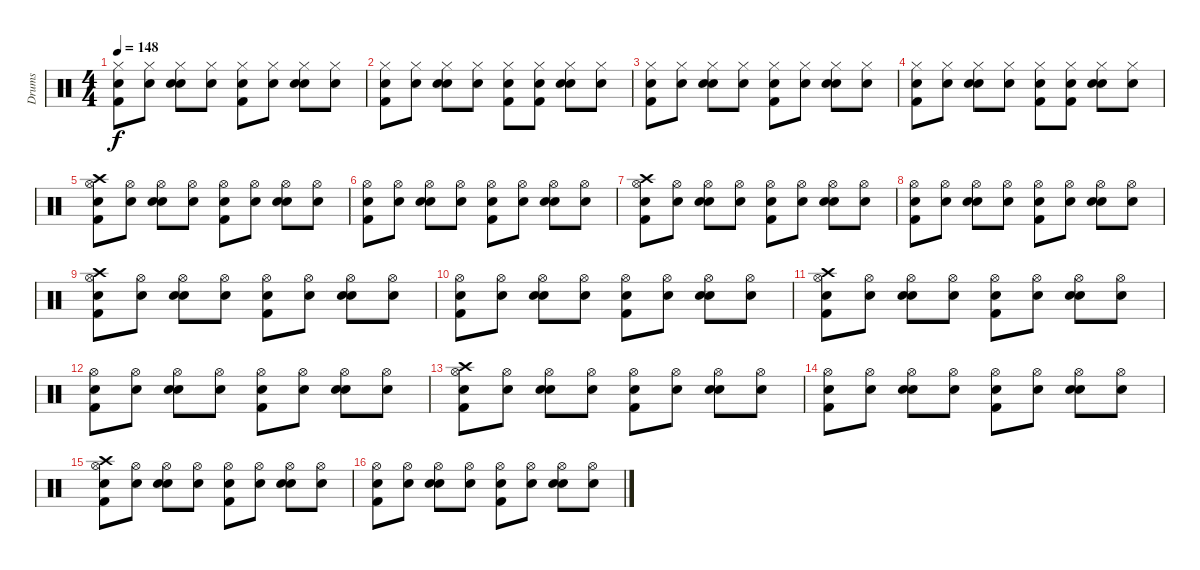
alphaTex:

\track ("Drums" "Drums") {instrument percussion}
\staff {score}
\articulation defaults
\ts (4 4)
\tempo 148
\clef neutral
\ks c
("Snare (hit)" "Kick (hit) 2" "Hi-Hat (closed)").8{dy f} ("Snare (hit)" "Hi-Hat (closed)").8 ("Snare (hit)" "Snare (hit) 2" "Hi-Hat (closed)").8 ("Snare (hit)" "Hi-Hat (closed)").8 ("Snare (hit)" "Kick (hit) 2" "Hi-Hat (closed)").8 ("Snare (hit)" "Hi-Hat (closed)").8 ("Snare (hit)" "Snare (hit) 2" "Hi-Hat (closed)").8 ("Snare (hit)" "Hi-Hat (closed)").8 |
("Snare (hit)" "Kick (hit) 2" "Hi-Hat (closed)").8 ("Snare (hit)" "Hi-Hat (closed)").8 ("Snare (hit)" "Snare (hit) 2" "Hi-Hat (closed)").8 ("Snare (hit)" "Hi-Hat (closed)").8 ("Snare (hit)" "Kick (hit) 2" "Hi-Hat (closed)").8 ("Snare (hit)" "Kick (hit) 2" "Hi-Hat (closed)").8 ("Snare (hit)" "Snare (hit) 2" "Hi-Hat (closed)").8 ("Snare (hit)" "Hi-Hat (closed)").8 |
("Snare (hit)" "Kick (hit) 2" "Hi-Hat (closed)").8 ("Snare (hit)" "Hi-Hat (closed)").8 ("Snare (hit)" "Snare (hit) 2" "Hi-Hat (closed)").8 ("Snare (hit)" "Hi-Hat (closed)").8 ("Snare (hit)" "Kick (hit) 2" "Hi-Hat (closed)").8 ("Snare (hit)" "Hi-Hat (closed)").8 ("Snare (hit)" "Snare (hit) 2" "Hi-Hat (closed)").8 ("Snare (hit)" "Hi-Hat (closed)").8 |
("Snare (hit)" "Kick (hit) 2" "Hi-Hat (closed)").8 ("Snare (hit)" "Hi-Hat (closed)").8 ("Snare (hit)" "Snare (hit) 2" "Hi-Hat (closed)").8 ("Snare (hit)" "Hi-Hat (closed)").8 ("Snare (hit)" "Kick (hit) 2" "Hi-Hat (closed)").8 ("Snare (hit)" "Kick (hit) 2" "Hi-Hat (closed)").8 ("Snare (hit)" "Snare (hit) 2" "Hi-Hat (closed)").8 ("Snare (hit)" "Hi-Hat (closed)").8 |
("Snare (hit)" "Kick (hit) 2" "Hi-Hat (open)" "Crash high (hit)").8 ("Snare (hit)" "Hi-Hat (open)").8 ("Snare (hit)" "Snare (hit) 2" "Hi-Hat (open)").8 ("Snare (hit)" "Hi-Hat (open)").8 ("Snare (hit)" "Kick (hit) 2" "Hi-Hat (open)").8 ("Snare (hit)" "Hi-Hat (open)").8 ("Snare (hit)" "Snare (hit) 2" "Hi-Hat (open)").8 ("Snare (hit)" "Hi-Hat (open)").8 |
("Snare (hit)" "Kick (hit) 2" "Hi-Hat (open)").8 ("Snare (hit)" "Hi-Hat (open)").8 ("Snare (hit)" "Snare (hit) 2" "Hi-Hat (open)").8 ("Snare (hit)" "Hi-Hat (open)").8 ("Snare (hit)" "Kick (hit) 2" "Hi-Hat (open)").8 ("Snare (hit)" "Hi-Hat (open)").8 ("Snare (hit)" "Snare (hit) 2" "Hi-Hat (open)").8 ("Snare (hit)" "Hi-Hat (open)").8 |
("Snare (hit)" "Kick (hit) 2" "Hi-Hat (open)" "Crash high (hit)").8 ("Snare (hit)" "Hi-Hat (open)").8 ("Snare (hit)" "Snare (hit) 2" "Hi-Hat (open)").8 ("Snare (hit)" "Hi-Hat (open)").8 ("Snare (hit)" "Kick (hit) 2" "Hi-Hat (open)").8 ("Snare (hit)" "Hi-Hat (open)").8 ("Snare (hit)" "Snare (hit) 2" "Hi-Hat (open)").8 ("Snare (hit)" "Hi-Hat (open)").8 |
("Snare (hit)" "Kick (hit) 2" "Hi-Hat (open)").8 ("Snare (hit)" "Hi-Hat (open)").8 ("Snare (hit)" "Snare (hit) 2" "Hi-Hat (open)").8 ("Snare (hit)" "Hi-Hat (open)").8 ("Snare (hit)" "Kick (hit) 2" "Hi-Hat (open)").8 ("Snare (hit)" "Hi-Hat (open)").8 ("Snare (hit)" "Snare (hit) 2" "Hi-Hat (open)").8 ("Snare (hit)" "Hi-Hat (open)").8 |
("Snare (hit)" "Kick (hit) 2" "Hi-Hat (open)" "Crash high (hit)").8 ("Snare (hit)" "Hi-Hat (open)").8 ("Snare (hit)" "Snare (hit) 2" "Hi-Hat (open)").8 ("Snare (hit)" "Hi-Hat (open)").8 ("Snare (hit)" "Kick (hit) 2" "Hi-Hat (open)").8 ("Snare (hit)" "Hi-Hat (open)").8 ("Snare (hit)" "Snare (hit) 2" "Hi-Hat (open)").8 ("Snare (hit)" "Hi-Hat (open)").8 |
("Snare (hit)" "Kick (hit) 2" "Hi-Hat (open)").8 ("Snare (hit)" "Hi-Hat (open)").8 ("Snare (hit)" "Snare (hit) 2" "Hi-Hat (open)").8 ("Snare (hit)" "Hi-Hat (open)").8 ("Snare (hit)" "Kick (hit) 2" "Hi-Hat (open)").8 ("Snare (hit)" "Hi-Hat (open)").8 ("Snare (hit)" "Snare (hit) 2" "Hi-Hat (open)").8 ("Snare (hit)" "Hi-Hat (open)").8 |
("Snare (hit)" "Kick (hit) 2" "Hi-Hat (open)" "Crash high (hit)").8 ("Snare (hit)" "Hi-Hat (open)").8 ("Snare (hit)" "Snare (hit) 2" "Hi-Hat (open)").8 ("Snare (hit)" "Hi-Hat (open)").8 ("Snare (hit)" "Kick (hit) 2" "Hi-Hat (open)").8 ("Snare (hit)" "Hi-Hat (open)").8 ("Snare (hit)" "Snare (hit) 2" "Hi-Hat (open)").8 ("Snare (hit)" "Hi-Hat (open)").8 |
("Snare (hit)" "Kick (hit) 2" "Hi-Hat (open)").8 ("Snare (hit)" "Hi-Hat (open)").8 ("Snare (hit)" "Snare (hit) 2" "Hi-Hat (open)").8 ("Snare (hit)" "Hi-Hat (open)").8 ("Snare (hit)" "Kick (hit) 2" "Hi-Hat (open)").8 ("Snare (hit)" "Hi-Hat (open)").8 ("Snare (hit)" "Snare (hit) 2" "Hi-Hat (open)").8 ("Snare (hit)" "Hi-Hat (open)").8 |
("Snare (hit)" "Kick (hit) 2" "Hi-Hat (open)" "Crash high (hit)").8 ("Snare (hit)" "Hi-Hat (open)").8 ("Snare (hit)" "Snare (hit) 2" "Hi-Hat (open)").8 ("Snare (hit)" "Hi-Hat (open)").8 ("Snare (hit)" "Kick (hit) 2" "Hi-Hat (open)").8 ("Snare (hit)" "Hi-Hat (open)").8 ("Snare (hit)" "Snare (hit) 2" "Hi-Hat (open)").8 ("Snare (hit)" "Hi-Hat (open)").8 |
("Snare (hit)" "Kick (hit) 2" "Hi-Hat (open)").8 ("Snare (hit)" "Hi-Hat (open)").8 ("Snare (hit)" "Snare (hit) 2" "Hi-Hat (open)").8 ("Snare (hit)" "Hi-Hat (open)").8 ("Snare (hit)" "Kick (hit) 2" "Hi-Hat (open)").8 ("Snare (hit)" "Hi-Hat (open)").8 ("Snare (hit)" "Snare (hit) 2" "Hi-Hat (open)").8 ("Snare (hit)" "Hi-Hat (open)").8 |
("Snare (hit)" "Kick (hit) 2" "Hi-Hat (open)" "Crash high (hit)").8 ("Snare (hit)" "Hi-Hat (open)").8 ("Snare (hit)" "Snare (hit) 2" "Hi-Hat (open)").8 ("Snare (hit)" "Hi-Hat (open)").8 ("Snare (hit)" "Kick (hit) 2" "Hi-Hat (open)").8 ("Snare (hit)" "Hi-Hat (open)").8 ("Snare (hit)" "Snare (hit) 2" "Hi-Hat (open)").8 ("Snare (hit)" "Hi-Hat (open)").8 |
("Snare (hit)" "Kick (hit) 2" "Hi-Hat (open)").8 ("Snare (hit)" "Hi-Hat (open)").8 ("Snare (hit)" "Snare (hit) 2" "Hi-Hat (open)").8 ("Snare (hit)" "Hi-Hat (open)").8 ("Snare (hit)" "Kick (hit) 2" "Hi-Hat (open)").8 ("Snare (hit)" "Hi-Hat (open)").8 ("Snare (hit)" "Snare (hit) 2" "Hi-Hat (open)").8 ("Snare (hit)" "Hi-Hat (open)").8
